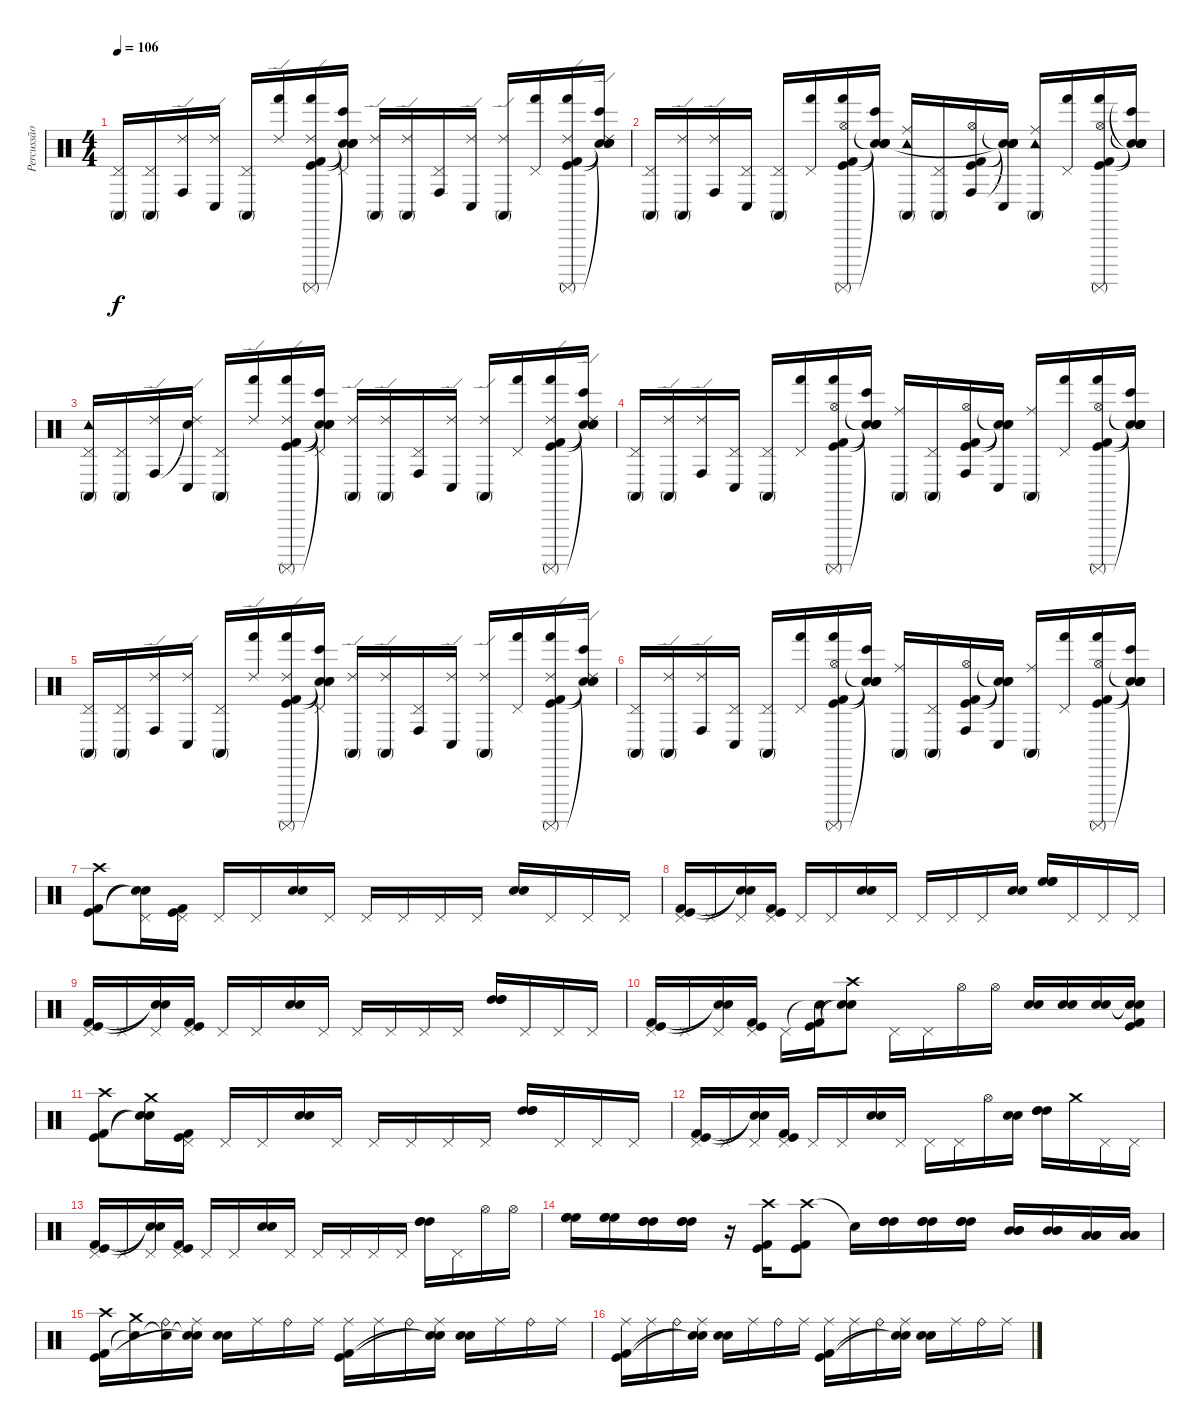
\track ("Percussão" "Percussão") {instrument percussion}
\staff {score}
\articulation defaults
\ts (4 4)
\tempo 106
\clef neutral
\ks c
("Pedal Hi-Hat (hit)" "Conga high (mute)").16{dy f} ("Pedal Hi-Hat (hit)" "Conga high (mute)").16 ("Ride (edge) 2" "Conga high (hit)").16 ("Ride (edge) 2" "Conga low (hit)").16 ("Pedal Hi-Hat (hit)" "Conga high (mute)").16 ("Ride (edge) 2" "Hand (hit)").16 ("Ride (edge) 2" "Hand (hit)" "Surdo (mute)" "Kick (hit)" "Kick (hit) 2").16 ("Pedal Hi-Hat (hit)" "Bongo High (hit)" "Snare (hit)"{t} "Snare (hit)"{t} "Snare (hit)"{t}).16 ("Ride (edge) 2" "Conga high (mute)").16 ("Ride (edge) 2" "Conga high (mute)").16 ("Pedal Hi-Hat (hit)" "Conga high (hit)").16 ("Ride (edge) 2" "Conga low (hit)").16 ("Ride (edge) 2" "Conga high (mute)").16 ("Pedal Hi-Hat (hit)" "Hand (hit)").16 ("Ride (edge) 2" "Hand (hit)" "Surdo (mute)" "Kick (hit)" "Kick (hit) 2").16 ("Ride (edge) 2" "Bongo High (hit)" "Snare (hit)"{t} "Snare (hit)"{t} "Snare (hit)"{t}).16 |
("Pedal Hi-Hat (hit)" "Conga high (mute)").16 ("Ride (edge) 2" "Conga high (mute)").16 ("Ride (edge) 2" "Conga high (hit)").16 ("Pedal Hi-Hat (hit)" "Conga low (hit)").16 ("Pedal Hi-Hat (hit)" "Conga high (mute)").16 ("Pedal Hi-Hat (hit)" "Hand (hit)").16 ("Hi-Hat (open)" "Hand (hit)" "Surdo (mute)" "Kick (hit)" "Kick (hit) 2").16 ("Snare (hit)"{t} "Bongo High (hit)" "Snare (hit)"{t} "Snare (hit)"{t} "Snare (hit)"{t}).16 ("Ride (middle)" "Tambourine (hit)" "Conga high (mute)").16 ("Pedal Hi-Hat (hit)" "Conga high (mute)").16 ("Hi-Hat (open)" "Conga high (hit)" "Kick (hit)" "Kick (hit) 2").16 ("Snare (hit)"{t} "Snare (hit)"{t} "Conga low (hit)" "Snare (hit)"{t} "Snare (hit)"{t}).16 ("Ride (middle)" "Tambourine (hit)" "Conga high (mute)").16 ("Pedal Hi-Hat (hit)" "Hand (hit)").16 ("Hi-Hat (open)" "Hand (hit)" "Surdo (mute)" "Kick (hit)" "Kick (hit) 2").16 ("Snare (hit)"{t} "Snare (hit)"{t} "Bongo High (hit)" "Snare (hit)"{t} "Snare (hit)"{t} "Snare (hit)").16 |
("Pedal Hi-Hat (hit)" "Tambourine (hit)" "Conga high (mute)").16 ("Pedal Hi-Hat (hit)" "Conga high (mute)").16 ("Ride (edge) 2" "Conga high (hit)").16 ("Ride (edge) 2" "Snare (hit)"{t} "Conga low (hit)").16 ("Pedal Hi-Hat (hit)" "Conga high (mute)").16 ("Ride (edge) 2" "Hand (hit)").16 ("Ride (edge) 2" "Hand (hit)" "Surdo (mute)" "Kick (hit)" "Kick (hit) 2").16 ("Pedal Hi-Hat (hit)" "Bongo High (hit)" "Snare (hit)"{t} "Snare (hit)"{t} "Snare (hit)"{t}).16 ("Ride (edge) 2" "Conga high (mute)").16 ("Ride (edge) 2" "Conga high (mute)").16 ("Pedal Hi-Hat (hit)" "Conga high (hit)").16 ("Ride (edge) 2" "Conga low (hit)").16 ("Ride (edge) 2" "Conga high (mute)").16 ("Pedal Hi-Hat (hit)" "Hand (hit)").16 ("Ride (edge) 2" "Hand (hit)" "Surdo (mute)" "Kick (hit)" "Kick (hit) 2").16 ("Ride (edge) 2" "Bongo High (hit)" "Snare (hit)"{t} "Snare (hit)"{t} "Snare (hit)"{t}).16 |
("Pedal Hi-Hat (hit)" "Conga high (mute)").16 ("Ride (edge) 2" "Conga high (mute)").16 ("Ride (edge) 2" "Conga high (hit)").16 ("Pedal Hi-Hat (hit)" "Conga low (hit)").16 ("Pedal Hi-Hat (hit)" "Conga high (mute)").16 ("Pedal Hi-Hat (hit)" "Hand (hit)").16 ("Hi-Hat (open)" "Hand (hit)" "Surdo (mute)" "Kick (hit)" "Kick (hit) 2").16 ("Snare (hit)"{t} "Bongo High (hit)" "Snare (hit)"{t} "Snare (hit)"{t} "Snare (hit)"{t}).16 ("Ride (middle)" "Conga high (mute)").16 ("Pedal Hi-Hat (hit)" "Conga high (mute)").16 ("Hi-Hat (open)" "Conga high (hit)" "Kick (hit)" "Kick (hit) 2").16 ("Snare (hit)"{t} "Conga low (hit)" "Snare (hit)"{t} "Snare (hit)"{t}).16 ("Ride (middle)" "Conga high (mute)").16 ("Pedal Hi-Hat (hit)" "Hand (hit)").16 ("Hi-Hat (open)" "Hand (hit)" "Surdo (mute)" "Kick (hit)" "Kick (hit) 2").16 ("Snare (hit)"{t} "Bongo High (hit)" "Snare (hit)"{t} "Snare (hit)"{t} "Snare (hit)"{t}).16 |
("Pedal Hi-Hat (hit)" "Conga high (mute)").16 ("Pedal Hi-Hat (hit)" "Conga high (mute)").16 ("Ride (edge) 2" "Conga high (hit)").16 ("Ride (edge) 2" "Conga low (hit)").16 ("Pedal Hi-Hat (hit)" "Conga high (mute)").16 ("Ride (edge) 2" "Hand (hit)").16 ("Ride (edge) 2" "Hand (hit)" "Surdo (mute)" "Kick (hit)" "Kick (hit) 2").16 ("Pedal Hi-Hat (hit)" "Bongo High (hit)" "Snare (hit)"{t} "Snare (hit)"{t} "Snare (hit)"{t}).16 ("Ride (edge) 2" "Conga high (mute)").16 ("Ride (edge) 2" "Conga high (mute)").16 ("Pedal Hi-Hat (hit)" "Conga high (hit)").16 ("Ride (edge) 2" "Conga low (hit)").16 ("Ride (edge) 2" "Conga high (mute)").16 ("Pedal Hi-Hat (hit)" "Hand (hit)").16 ("Ride (edge) 2" "Hand (hit)" "Surdo (mute)" "Kick (hit)" "Kick (hit) 2").16 ("Ride (edge) 2" "Bongo High (hit)" "Snare (hit)"{t} "Snare (hit)"{t} "Snare (hit)"{t}).16 |
("Pedal Hi-Hat (hit)" "Conga high (mute)").16 ("Ride (edge) 2" "Conga high (mute)").16 ("Ride (edge) 2" "Conga high (hit)").16 ("Pedal Hi-Hat (hit)" "Conga low (hit)").16 ("Pedal Hi-Hat (hit)" "Conga high (mute)").16 ("Pedal Hi-Hat (hit)" "Hand (hit)").16 ("Hi-Hat (open)" "Hand (hit)" "Surdo (mute)" "Kick (hit)" "Kick (hit) 2").16 ("Snare (hit)"{t} "Bongo High (hit)" "Snare (hit)"{t} "Snare (hit)"{t} "Snare (hit)"{t}).16 ("Ride (middle)" "Conga high (mute)").16 ("Pedal Hi-Hat (hit)" "Conga high (mute)").16 ("Hi-Hat (open)" "Conga high (hit)" "Kick (hit)" "Kick (hit) 2").16 ("Snare (hit)"{t} "Conga low (hit)" "Snare (hit)"{t} "Snare (hit)"{t}).16 ("Ride (middle)" "Conga high (mute)").16 ("Pedal Hi-Hat (hit)" "Hand (hit)").16 ("Hi-Hat (open)" "Hand (hit)" "Surdo (mute)" "Kick (hit)" "Kick (hit) 2").16 ("Snare (hit)"{t} "Bongo High (hit)" "Snare (hit)"{t} "Snare (hit)"{t} "Snare (hit)"{t}).16 |
("Crash high (hit)" "Kick (hit)" "Kick (hit) 2").8 ("Pedal Hi-Hat (hit)" "Snare (hit)"{t} "Snare (hit)"{t}).16 ("Pedal Hi-Hat (hit)" "Kick (hit) 2" "Kick (hit)").16 "Pedal Hi-Hat (hit)".16 "Pedal Hi-Hat (hit)".16 ("Electric Snare (hit)" "Snare (hit) 2").16 "Pedal Hi-Hat (hit)".16 "Pedal Hi-Hat (hit)".16 "Pedal Hi-Hat (hit)".16 "Pedal Hi-Hat (hit)".16 "Pedal Hi-Hat (hit)".16 ("Electric Snare (hit)" "Snare (hit) 2").16 "Pedal Hi-Hat (hit)".16 "Pedal Hi-Hat (hit)".16 "Pedal Hi-Hat (hit)".16 |
("Pedal Hi-Hat (hit)" "Kick (hit)" "Kick (hit) 2").16 "Pedal Hi-Hat (hit)".16 ("Pedal Hi-Hat (hit)" "Snare (hit)"{t} "Snare (hit)"{t}).16 ("Pedal Hi-Hat (hit)" "Kick (hit)" "Kick (hit) 2").16 "Pedal Hi-Hat (hit)".16 "Pedal Hi-Hat (hit)".16 ("Electric Snare (hit)" "Snare (hit) 2").16 "Pedal Hi-Hat (hit)".16 "Pedal Hi-Hat (hit)".16 "Pedal Hi-Hat (hit)".16 "Pedal Hi-Hat (hit)".16 ("Electric Snare (hit)" "Snare (hit) 2").16 ("High Floor Tom (hit)" "High Floor Tom (hit)" "High Floor Tom (hit)").16 "Pedal Hi-Hat (hit)".16 "Pedal Hi-Hat (hit)".16 "Pedal Hi-Hat (hit)".16 |
("Pedal Hi-Hat (hit)" "Kick (hit)" "Kick (hit) 2").16 "Pedal Hi-Hat (hit)".16 ("Pedal Hi-Hat (hit)" "Snare (hit)"{t} "Snare (hit)"{t}).16 ("Pedal Hi-Hat (hit)" "Kick (hit) 2" "Kick (hit)").16 "Pedal Hi-Hat (hit)".16 "Pedal Hi-Hat (hit)".16 ("Electric Snare (hit)" "Snare (hit) 2").16 "Pedal Hi-Hat (hit)".16 "Pedal Hi-Hat (hit)".16 "Pedal Hi-Hat (hit)".16 "Pedal Hi-Hat (hit)".16 "Pedal Hi-Hat (hit)".16 ("High Tom (hit)" "High Tom (hit)" "High Tom (hit)").16 "Pedal Hi-Hat (hit)".16 "Pedal Hi-Hat (hit)".16 "Pedal Hi-Hat (hit)".16 |
("Pedal Hi-Hat (hit)" "Kick (hit)" "Kick (hit) 2").16 "Pedal Hi-Hat (hit)".16 ("Pedal Hi-Hat (hit)" "Snare (hit)"{t} "Snare (hit)"{t}).16 ("Pedal Hi-Hat (hit)" "Kick (hit) 2" "Kick (hit)").16 "Pedal Hi-Hat (hit)".16 ("Snare (hit)"{t} "Kick (hit)" "Kick (hit) 2").16 ("Crash high (hit)" "Snare (hit)"{t} "Snare (hit)"{t}).8 "Pedal Hi-Hat (hit)".16 "Pedal Hi-Hat (hit)".16 "Hi-Hat (open)".16 "Hi-Hat (open)".16 ("Electric Snare (hit)" "Snare (hit) 2").16 ("Electric Snare (hit)" "Snare (hit) 2").16 ("Electric Snare (hit)" "Snare (hit) 2").16 ("Snare (hit)"{t} "Snare (hit)"{t} "Kick (hit)" "Kick (hit) 2").16 |
("Crash high (hit)" "Kick (hit) 2" "Kick (hit)").8 ("Crash medium (hit)" "Snare (hit)"{t} "Snare (hit)"{t}).16 ("Pedal Hi-Hat (hit)" "Kick (hit)" "Kick (hit) 2").16 "Pedal Hi-Hat (hit)".16 "Pedal Hi-Hat (hit)".16 ("Electric Snare (hit)" "Snare (hit) 2").16 "Pedal Hi-Hat (hit)".16 "Pedal Hi-Hat (hit)".16 "Pedal Hi-Hat (hit)".16 "Pedal Hi-Hat (hit)".16 "Pedal Hi-Hat (hit)".16 ("High Tom (hit)" "High Tom (hit)" "High Tom (hit)").16 "Pedal Hi-Hat (hit)".16 "Pedal Hi-Hat (hit)".16 "Pedal Hi-Hat (hit)".16 |
("Pedal Hi-Hat (hit)" "Kick (hit) 2" "Kick (hit)").16 "Pedal Hi-Hat (hit)".16 ("Pedal Hi-Hat (hit)" "Snare (hit)"{t} "Snare (hit)"{t}).16 ("Pedal Hi-Hat (hit)" "Kick (hit)" "Kick (hit) 2").16 "Pedal Hi-Hat (hit)".16 "Pedal Hi-Hat (hit)".16 ("Electric Snare (hit)" "Snare (hit) 2").16 "Pedal Hi-Hat (hit)".16 "Pedal Hi-Hat (hit)".16 "Pedal Hi-Hat (hit)".16 "Hi-Hat (open)".16 ("Electric Snare (hit)" "Snare (hit) 2").16 ("High Tom (hit)" "High Tom (hit)" "High Tom (hit)").16 "Crash medium (hit)".16 "Pedal Hi-Hat (hit)".16 "Pedal Hi-Hat (hit)".16 |
("Pedal Hi-Hat (hit)" "Kick (hit)" "Kick (hit) 2").16 "Pedal Hi-Hat (hit)".16 ("Pedal Hi-Hat (hit)" "Snare (hit)"{t} "Snare (hit)"{t}).16 ("Pedal Hi-Hat (hit)" "Kick (hit)" "Kick (hit) 2").16 "Pedal Hi-Hat (hit)".16 "Pedal Hi-Hat (hit)".16 ("Electric Snare (hit)" "Snare (hit) 2").16 "Pedal Hi-Hat (hit)".16 "Pedal Hi-Hat (hit)".16 "Pedal Hi-Hat (hit)".16 "Pedal Hi-Hat (hit)".16 "Pedal Hi-Hat (hit)".16 ("High Tom (hit)" "High Tom (hit)" "High Tom (hit)").16 "Pedal Hi-Hat (hit)".16 "Hi-Hat (open)".16 "Hi-Hat (open)".16 |
("High Floor Tom (hit)" "High Floor Tom (hit)" "High Floor Tom (hit)").16 ("High Floor Tom (hit)" "High Floor Tom (hit)" "High Floor Tom (hit)").16 ("High Tom (hit)" "High Tom (hit)" "High Tom (hit)").16 ("High Tom (hit)" "High Tom (hit)" "High Tom (hit)").16 r.16 ("Crash high (hit)" "Kick (hit) 2" "Kick (hit)").16 ("Crash high (hit)" "Kick (hit)" "Kick (hit) 2").8 "Snare (hit)"{t}.16 ("High Tom (hit)" "High Tom (hit)" "High Tom (hit)").16 ("High Tom (hit)" "High Tom (hit)" "High Tom (hit)").16 ("High Tom (hit)" "High Tom (hit)" "High Tom (hit)").16 ("Mid Tom (hit)" "Mid Tom (hit)" "Mid Tom (hit)").16 ("Mid Tom (hit)" "Mid Tom (hit)" "Mid Tom (hit)").16 ("Low Tom (hit)" "Low Tom (hit)" "Low Tom (hit)").16 ("Low Tom (hit)" "Low Tom (hit)" "Low Tom (hit)").16 |
("Crash high (hit)" "Kick (hit) 2" "Kick (hit)").16 ("Crash medium (hit)" "Snare (hit)"{t}).16 ("Ride (bell)" "Snare (hit)"{t}).16 ("Ride (middle)" "Snare (hit)"{t} "Snare (hit)"{t}).16 ("Electric Snare (hit)" "Snare (hit) 2").16 "Ride (middle)".16 "Ride (bell)".16 "Ride (middle)".16 ("Ride (middle)" "Kick (hit)" "Kick (hit) 2").16 "Ride (middle)".16 "Ride (bell)".16 ("Ride (middle)" "Snare (hit)"{t} "Snare (hit)"{t}).16 ("Electric Snare (hit)" "Snare (hit) 2").16 "Ride (middle)".16 "Ride (bell)".16 "Ride (middle)".16 |
("Ride (middle)" "Kick (hit)" "Kick (hit) 2").16 "Ride (middle)".16 "Ride (bell)".16 ("Ride (middle)" "Snare (hit)"{t} "Snare (hit)"{t}).16 ("Electric Snare (hit)" "Snare (hit) 2").16 "Ride (middle)".16 "Ride (bell)".16 "Ride (middle)".16 ("Ride (middle)" "Kick (hit)" "Kick (hit) 2").16 "Ride (middle)".16 "Ride (bell)".16 ("Ride (middle)" "Snare (hit)"{t} "Snare (hit)"{t}).16 ("Electric Snare (hit)" "Snare (hit) 2").16 "Ride (middle)".16 "Ride (bell)".16 "Ride (middle)".16
